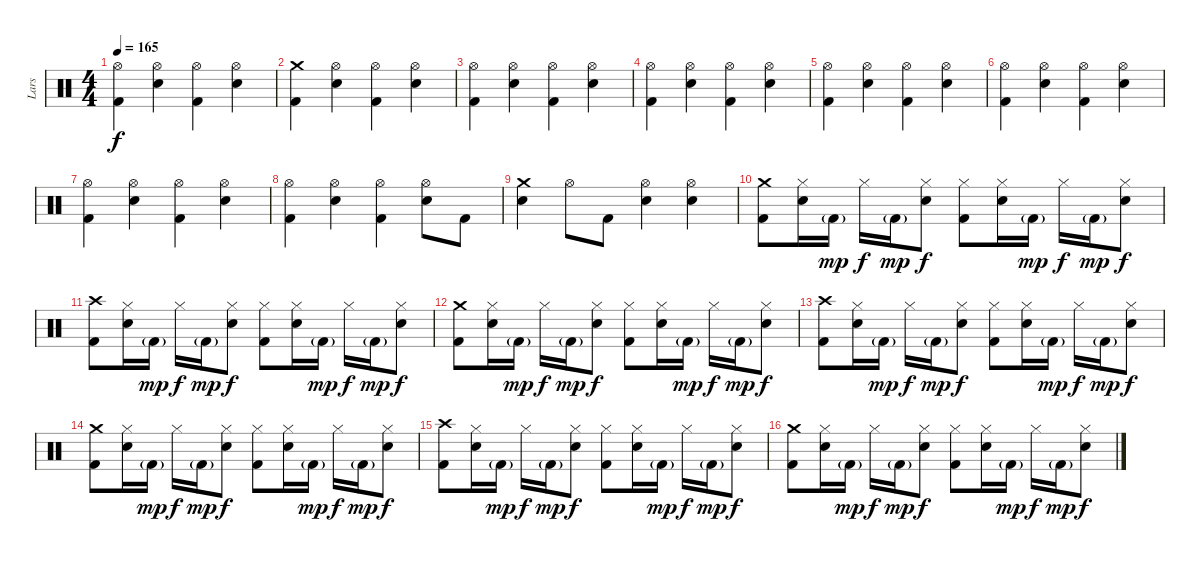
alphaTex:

\track ("Lars" "Lars") {instrument percussion}
\staff {score}
\articulation defaults
\ts (4 4)
\tempo 165
\clef neutral
\ks c
("Hi-Hat (open)" "Kick (hit) 2").4{dy f} ("Hi-Hat (open)" "Snare (hit) 2").4 ("Hi-Hat (open)" "Kick (hit) 2").4 ("Hi-Hat (open)" "Snare (hit) 2").4 |
("Crash medium (hit)" "Kick (hit) 2").4 ("Hi-Hat (open)" "Snare (hit) 2").4 ("Hi-Hat (open)" "Kick (hit) 2").4 ("Hi-Hat (open)" "Snare (hit) 2").4 |
("Hi-Hat (open)" "Kick (hit) 2").4 ("Hi-Hat (open)" "Snare (hit) 2").4 ("Hi-Hat (open)" "Kick (hit) 2").4 ("Hi-Hat (open)" "Snare (hit) 2").4 |
("Hi-Hat (open)" "Kick (hit) 2").4 ("Hi-Hat (open)" "Snare (hit) 2").4 ("Hi-Hat (open)" "Kick (hit) 2").4 ("Hi-Hat (open)" "Snare (hit) 2").4 |
("Hi-Hat (open)" "Kick (hit) 2").4 ("Hi-Hat (open)" "Snare (hit) 2").4 ("Hi-Hat (open)" "Kick (hit) 2").4 ("Hi-Hat (open)" "Snare (hit) 2").4 |
("Hi-Hat (open)" "Kick (hit) 2").4 ("Hi-Hat (open)" "Snare (hit) 2").4 ("Hi-Hat (open)" "Kick (hit) 2").4 ("Hi-Hat (open)" "Snare (hit) 2").4 |
("Hi-Hat (open)" "Kick (hit) 2").4 ("Hi-Hat (open)" "Snare (hit) 2").4 ("Hi-Hat (open)" "Kick (hit) 2").4 ("Hi-Hat (open)" "Snare (hit) 2").4 |
("Hi-Hat (open)" "Kick (hit) 2").4 ("Hi-Hat (open)" "Snare (hit) 2").4 ("Hi-Hat (open)" "Kick (hit) 2").4 ("Hi-Hat (open)" "Snare (hit) 2").8 "Kick (hit) 2".8 |
("Crash medium (hit)" "Snare (hit) 2").4 "Hi-Hat (open)".8 "Kick (hit) 2".8 ("Hi-Hat (open)" "Snare (hit) 2").4 ("Hi-Hat (open)" "Snare (hit) 2").4 |
("Crash medium (hit)" "Kick (hit) 2").8 ("Hi-Hat (closed)" "Snare (hit) 2").16 "Kick (hit) 2"{g}.16{dy mp} "Hi-Hat (closed)".16{dy f} "Kick (hit) 2"{g}.16{dy mp} ("Hi-Hat (closed)" "Snare (hit) 2").8{dy f} ("Hi-Hat (closed)" "Kick (hit) 2").8 ("Hi-Hat (closed)" "Snare (hit) 2").16 "Kick (hit) 2"{g}.16{dy mp} "Hi-Hat (closed)".16{dy f} "Kick (hit) 2"{g}.16{dy mp} ("Hi-Hat (closed)" "Snare (hit) 2").8{dy f} |
("Crash high (hit)" "Kick (hit) 2").8 ("Hi-Hat (closed)" "Snare (hit) 2").16 "Kick (hit) 2"{g}.16{dy mp} "Hi-Hat (closed)".16{dy f} "Kick (hit) 2"{g}.16{dy mp} ("Hi-Hat (closed)" "Snare (hit) 2").8{dy f} ("Hi-Hat (closed)" "Kick (hit) 2").8 ("Hi-Hat (closed)" "Snare (hit) 2").16 "Kick (hit) 2"{g}.16{dy mp} "Hi-Hat (closed)".16{dy f} "Kick (hit) 2"{g}.16{dy mp} ("Hi-Hat (closed)" "Snare (hit) 2").8{dy f} |
("Crash medium (hit)" "Kick (hit) 2").8 ("Hi-Hat (closed)" "Snare (hit) 2").16 "Kick (hit) 2"{g}.16{dy mp} "Hi-Hat (closed)".16{dy f} "Kick (hit) 2"{g}.16{dy mp} ("Hi-Hat (closed)" "Snare (hit) 2").8{dy f} ("Hi-Hat (closed)" "Kick (hit) 2").8 ("Hi-Hat (closed)" "Snare (hit) 2").16 "Kick (hit) 2"{g}.16{dy mp} "Hi-Hat (closed)".16{dy f} "Kick (hit) 2"{g}.16{dy mp} ("Hi-Hat (closed)" "Snare (hit) 2").8{dy f} |
("Crash high (hit)" "Kick (hit) 2").8 ("Hi-Hat (closed)" "Snare (hit) 2").16 "Kick (hit) 2"{g}.16{dy mp} "Hi-Hat (closed)".16{dy f} "Kick (hit) 2"{g}.16{dy mp} ("Hi-Hat (closed)" "Snare (hit) 2").8{dy f} ("Hi-Hat (closed)" "Kick (hit) 2").8 ("Hi-Hat (closed)" "Snare (hit) 2").16 "Kick (hit) 2"{g}.16{dy mp} "Hi-Hat (closed)".16{dy f} "Kick (hit) 2"{g}.16{dy mp} ("Hi-Hat (closed)" "Snare (hit) 2").8{dy f} |
("Crash medium (hit)" "Kick (hit) 2").8 ("Hi-Hat (closed)" "Snare (hit) 2").16 "Kick (hit) 2"{g}.16{dy mp} "Hi-Hat (closed)".16{dy f} "Kick (hit) 2"{g}.16{dy mp} ("Hi-Hat (closed)" "Snare (hit) 2").8{dy f} ("Hi-Hat (closed)" "Kick (hit) 2").8 ("Hi-Hat (closed)" "Snare (hit) 2").16 "Kick (hit) 2"{g}.16{dy mp} "Hi-Hat (closed)".16{dy f} "Kick (hit) 2"{g}.16{dy mp} ("Hi-Hat (closed)" "Snare (hit) 2").8{dy f} |
("Crash high (hit)" "Kick (hit) 2").8 ("Hi-Hat (closed)" "Snare (hit) 2").16 "Kick (hit) 2"{g}.16{dy mp} "Hi-Hat (closed)".16{dy f} "Kick (hit) 2"{g}.16{dy mp} ("Hi-Hat (closed)" "Snare (hit) 2").8{dy f} ("Hi-Hat (closed)" "Kick (hit) 2").8 ("Hi-Hat (closed)" "Snare (hit) 2").16 "Kick (hit) 2"{g}.16{dy mp} "Hi-Hat (closed)".16{dy f} "Kick (hit) 2"{g}.16{dy mp} ("Hi-Hat (closed)" "Snare (hit) 2").8{dy f} |
("Crash medium (hit)" "Kick (hit) 2").8 ("Hi-Hat (closed)" "Snare (hit) 2").16 "Kick (hit) 2"{g}.16{dy mp} "Hi-Hat (closed)".16{dy f} "Kick (hit) 2"{g}.16{dy mp} ("Hi-Hat (closed)" "Snare (hit) 2").8{dy f} ("Hi-Hat (closed)" "Kick (hit) 2").8 ("Hi-Hat (closed)" "Snare (hit) 2").16 "Kick (hit) 2"{g}.16{dy mp} "Hi-Hat (closed)".16{dy f} "Kick (hit) 2"{g}.16{dy mp} ("Hi-Hat (closed)" "Snare (hit) 2").8{dy f}
